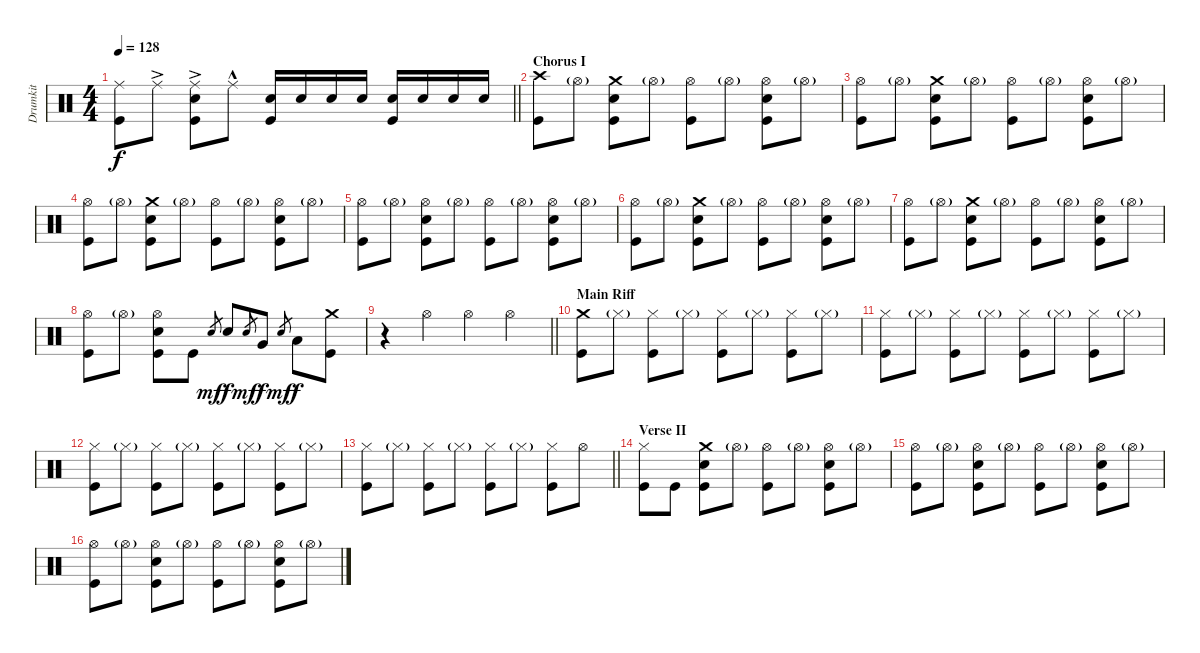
\track ("Drumkit" "Drumkit") {instrument percussion}
\staff
\articulation defaults
\ts (4 4)
\tempo 128
\clef neutral
\barLineRight lightlight
\ks c
("Ride (middle)" "Kick (hit)").8{dy f} "Ride (middle)"{ac}.8 ("Ride (middle)"{ac} "Snare (hit) 2" "Kick (hit)").8 "Ride (middle)"{hac}.8 ("Snare (hit) 2" "Kick (hit)").16 "Snare (hit) 2".16 "Snare (hit) 2".16 "Snare (hit) 2".16 ("Snare (hit) 2" "Kick (hit)").16 "Snare (hit) 2".16 "Snare (hit) 2".16 "Snare (hit) 2".16 |
\section ("" "Chorus I")
("Crash high (hit)" "Kick (hit)").8 "Hi-Hat (open)"{g}.8 ("Crash medium (hit)" "Kick (hit)" "Snare (hit) 2").8 "Hi-Hat (open)"{g}.8 ("Hi-Hat (open)" "Kick (hit)").8 "Hi-Hat (open)"{g}.8 ("Hi-Hat (open)" "Kick (hit)" "Snare (hit) 2").8 "Hi-Hat (open)"{g}.8 |
("Hi-Hat (open)" "Kick (hit)").8 "Hi-Hat (open)"{g}.8 ("Crash medium (hit)" "Kick (hit)" "Snare (hit) 2").8 "Hi-Hat (open)"{g}.8 ("Hi-Hat (open)" "Kick (hit)").8 "Hi-Hat (open)"{g}.8 ("Hi-Hat (open)" "Kick (hit)" "Snare (hit) 2").8 "Hi-Hat (open)"{g}.8 |
("Hi-Hat (open)" "Kick (hit)").8 "Hi-Hat (open)"{g}.8 ("Crash medium (hit)" "Kick (hit)" "Snare (hit) 2").8 "Hi-Hat (open)"{g}.8 ("Hi-Hat (open)" "Kick (hit)").8 "Hi-Hat (open)"{g}.8 ("Hi-Hat (open)" "Kick (hit)" "Snare (hit) 2").8 "Hi-Hat (open)"{g}.8 |
("Hi-Hat (open)" "Kick (hit)").8 "Hi-Hat (open)"{g}.8 ("Hi-Hat (open)" "Kick (hit)" "Snare (hit) 2").8 "Hi-Hat (open)"{g}.8 ("Hi-Hat (open)" "Kick (hit)").8 "Hi-Hat (open)"{g}.8 ("Hi-Hat (open)" "Kick (hit)" "Snare (hit) 2").8 "Hi-Hat (open)"{g}.8 |
("Hi-Hat (open)" "Kick (hit)").8 "Hi-Hat (open)"{g}.8 ("Crash medium (hit)" "Kick (hit)" "Snare (hit) 2").8 "Hi-Hat (open)"{g}.8 ("Hi-Hat (open)" "Kick (hit)").8 "Hi-Hat (open)"{g}.8 ("Hi-Hat (open)" "Kick (hit)" "Snare (hit) 2").8 "Hi-Hat (open)"{g}.8 |
("Hi-Hat (open)" "Kick (hit)").8 "Hi-Hat (open)"{g}.8 ("Crash medium (hit)" "Kick (hit)" "Snare (hit) 2").8 "Hi-Hat (open)"{g}.8 ("Hi-Hat (open)" "Kick (hit)").8 "Hi-Hat (open)"{g}.8 ("Hi-Hat (open)" "Kick (hit)" "Snare (hit) 2").8 "Hi-Hat (open)"{g}.8 |
("Hi-Hat (open)" "Kick (hit)").8 "Hi-Hat (open)"{g}.8 ("Hi-Hat (open)" "Kick (hit)" "Snare (hit) 2").8 "Kick (hit)".8 "Snare (hit)".8{gr dy mf} "Snare (hit) 2".8{dy f} "Snare (hit)".8{gr dy mf} "Very Low Tom (hit)".8{dy f} "Snare (hit)".8{gr dy mf} "Low Floor Tom (hit)".8{dy f} ("Crash medium (hit)" "Kick (hit)").8 |
\barLineRight lightlight
r.4 "Hi-Hat (open)".4 "Hi-Hat (open)".4 "Hi-Hat (open)".4 |
\section ("" "Main Riff")
("Crash medium (hit)" "Kick (hit)").8 "Hi-Hat (closed)"{g}.8 ("Hi-Hat (closed)" "Kick (hit)").8 "Hi-Hat (closed)"{g}.8 ("Hi-Hat (closed)" "Kick (hit)").8 "Hi-Hat (closed)"{g}.8 ("Hi-Hat (closed)" "Kick (hit)").8 "Hi-Hat (closed)"{g}.8 |
("Hi-Hat (closed)" "Kick (hit)").8 "Hi-Hat (closed)"{g}.8 ("Hi-Hat (closed)" "Kick (hit)").8 "Hi-Hat (closed)"{g}.8 ("Hi-Hat (closed)" "Kick (hit)").8 "Hi-Hat (closed)"{g}.8 ("Hi-Hat (closed)" "Kick (hit)").8 "Hi-Hat (closed)"{g}.8 |
("Hi-Hat (closed)" "Kick (hit)").8 "Hi-Hat (closed)"{g}.8 ("Hi-Hat (closed)" "Kick (hit)").8 "Hi-Hat (closed)"{g}.8 ("Hi-Hat (closed)" "Kick (hit)").8 "Hi-Hat (closed)"{g}.8 ("Hi-Hat (closed)" "Kick (hit)").8 "Hi-Hat (closed)"{g}.8 |
\barLineRight lightlight
("Hi-Hat (closed)" "Kick (hit)").8 "Hi-Hat (closed)"{g}.8 ("Hi-Hat (closed)" "Kick (hit)").8 "Hi-Hat (closed)"{g}.8 ("Hi-Hat (closed)" "Kick (hit)").8 "Hi-Hat (closed)"{g}.8 ("Hi-Hat (closed)" "Kick (hit)").8 "Hi-Hat (open)".8 |
\section ("" "Verse II")
("Hi-Hat (closed)" "Kick (hit)").8 "Kick (hit)".8 ("Crash medium (hit)" "Kick (hit)" "Snare (hit) 2").8 "Hi-Hat (open)"{g}.8 ("Hi-Hat (open)" "Kick (hit)").8 "Hi-Hat (open)"{g}.8 ("Hi-Hat (open)" "Kick (hit)" "Snare (hit) 2").8 "Hi-Hat (open)"{g}.8 |
("Hi-Hat (open)" "Kick (hit)").8 "Hi-Hat (open)"{g}.8 ("Hi-Hat (open)" "Kick (hit)" "Snare (hit) 2").8 "Hi-Hat (open)"{g}.8 ("Hi-Hat (open)" "Kick (hit)").8 "Hi-Hat (open)"{g}.8 ("Hi-Hat (open)" "Kick (hit)" "Snare (hit) 2").8 "Hi-Hat (open)"{g}.8 |
("Hi-Hat (open)" "Kick (hit)").8 "Hi-Hat (open)"{g}.8 ("Hi-Hat (open)" "Kick (hit)" "Snare (hit) 2").8 "Hi-Hat (open)"{g}.8 ("Hi-Hat (open)" "Kick (hit)").8 "Hi-Hat (open)"{g}.8 ("Hi-Hat (open)" "Kick (hit)" "Snare (hit) 2").8 "Hi-Hat (open)"{g}.8
